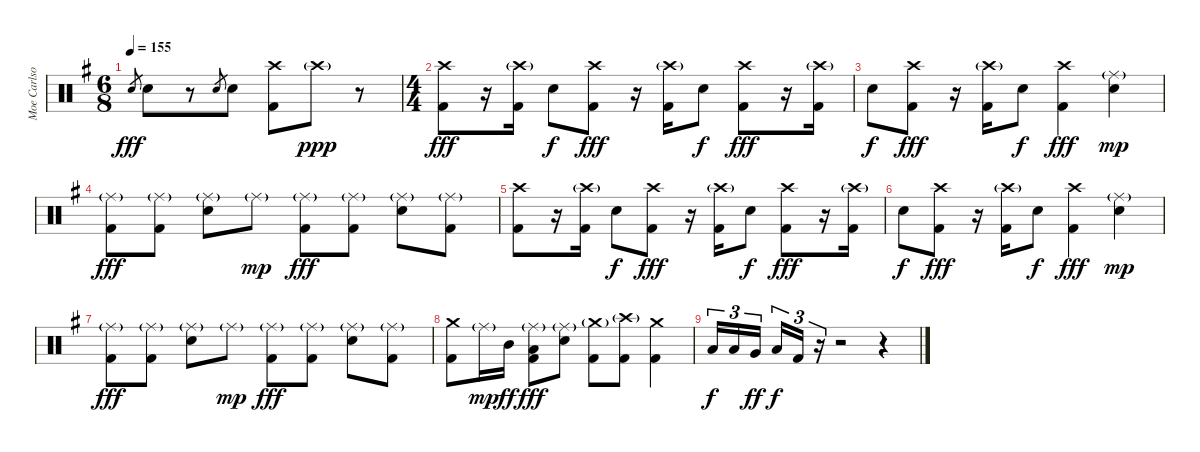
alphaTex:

\track ("Moe Carlson" "Moe Carlso") {instrument percussion}
\staff {score}
\articulation defaults
\ts (6 8)
\tempo 155
\clef neutral
\ks g "Snare (hit) 2".8{gr dy fff} "Snare (hit) 2".8
r.8 "Snare (hit) 2".8{gr} "Snare (hit) 2".8 ("Crash high (hit)" "Kick (hit) 2").8 "Crash high (hit)"{g}.8{dy ppp} r.8 |
\ts (4 4)
("Crash high (hit)" "Kick (hit) 2").8{dy fff} r.16 ("Crash high (hit)"{g} "Kick (hit) 2").16 "Electric Snare (hit)".8{dy f} ("Crash high (hit)" "Kick (hit) 2").8{dy fff} r.16 ("Crash high (hit)"{g} "Kick (hit) 2").16 "Electric Snare (hit)".8{dy f} ("Crash high (hit)" "Kick (hit) 2").8{dy fff} r.16 ("Crash high (hit)"{g} "Kick (hit) 2").16 |
"Electric Snare (hit)".8{dy f} ("Crash high (hit)" "Kick (hit) 2").8{dy fff} r.16 ("Crash high (hit)"{g} "Kick (hit) 2").16 "Electric Snare (hit)".8{dy f} ("Crash high (hit)" "Kick (hit) 2").4{dy fff} ("Ride (middle)"{g} "Electric Snare (hit)").4{dy mp} |
("Ride (middle)"{g} "Kick (hit) 2").8{dy fff} ("Ride (middle)"{g} "Kick (hit) 2").8 ("Ride (middle)"{g} "Electric Snare (hit)").8 "Ride (middle)"{g}.8{dy mp} ("Ride (middle)"{g} "Kick (hit) 2").8{dy fff} ("Ride (middle)"{g} "Kick (hit) 2").8 ("Ride (middle)"{g} "Electric Snare (hit)").8 ("Ride (middle)"{g} "Kick (hit) 2").8 |
("Crash high (hit)" "Kick (hit) 2").8 r.16 ("Crash high (hit)"{g} "Kick (hit) 2").16 "Electric Snare (hit)".8{dy f} ("Crash high (hit)" "Kick (hit) 2").8{dy fff} r.16 ("Crash high (hit)"{g} "Kick (hit) 2").16 "Electric Snare (hit)".8{dy f} ("Crash high (hit)" "Kick (hit) 2").8{dy fff} r.16 ("Crash high (hit)"{g} "Kick (hit) 2").16 |
"Electric Snare (hit)".8{dy f} ("Crash high (hit)" "Kick (hit) 2").8{dy fff} r.16 ("Crash high (hit)"{g} "Kick (hit) 2").16 "Electric Snare (hit)".8{dy f} ("Crash high (hit)" "Kick (hit) 2").4{dy fff} ("Ride (middle)"{g} "Electric Snare (hit)").4{dy mp} |
("Ride (middle)"{g} "Kick (hit) 2").8{dy fff} ("Ride (middle)"{g} "Kick (hit) 2").8 ("Ride (middle)"{g} "Electric Snare (hit)").8 "Ride (middle)"{g}.8{dy mp} ("Ride (middle)"{g} "Kick (hit) 2").8{dy fff} ("Ride (middle)"{g} "Kick (hit) 2").8 ("Ride (middle)"{g} "Electric Snare (hit)").8 ("Ride (middle)"{g} "Kick (hit) 2").8 |
("Crash medium (hit)" "Kick (hit) 2").8 "Ride (middle)"{g}.16{dy mp} "Mid Tom (hit)".16{dy ff} ("Ride (middle)"{g} "Low Tom (hit)" "Kick (hit) 2").8{dy fff} ("Ride (middle)"{g} "Electric Snare (hit)").8 ("Crash medium (hit)"{g} "Kick (hit) 2").8 ("Crash high (hit)"{g} "Kick (hit) 2").8 ("Crash medium (hit)" "Kick (hit) 2").4 |
"Low Tom (hit)".16{tu (3 2) dy f} "Low Tom (hit)".16{tu (3 2)} "Very Low Tom (hit)".16{tu (3 2) dy ff} "Low Floor Tom (hit)".16{tu (3 2) dy f} "Kick (hit) 2".16{tu (3 2)} r.16{tu (3 2)} r.2 r.4
